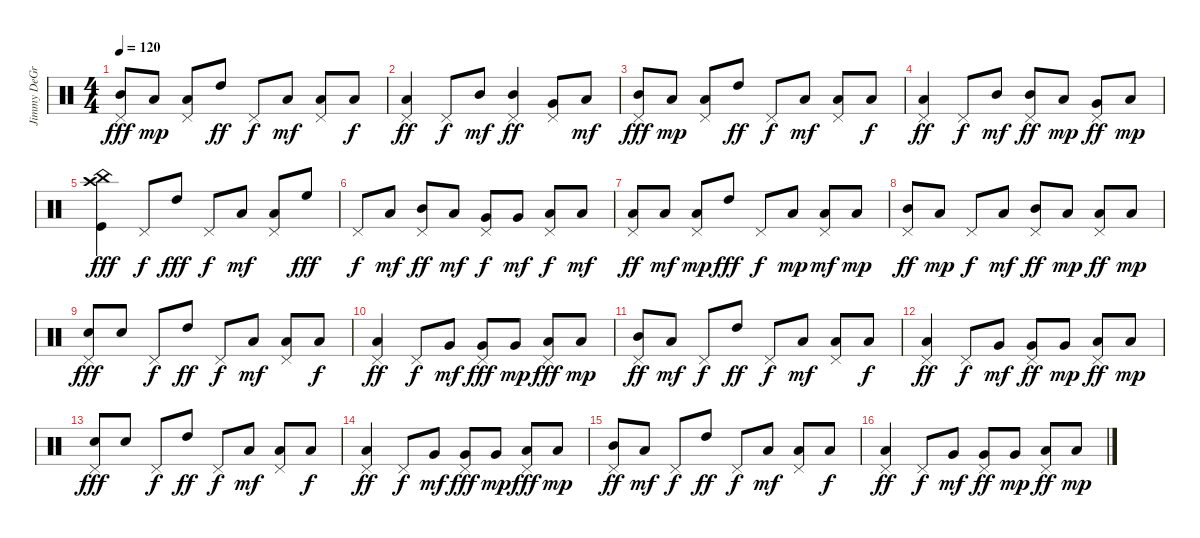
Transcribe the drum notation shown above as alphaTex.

\track ("Jimmy DeGrasso" "Jimmy DeGr") {instrument percussion}
\staff {score}
\articulation defaults
\ts (4 4)
\tempo 120
\clef neutral
\ks c
("Mid Tom (hit)" "Pedal Hi-Hat (hit)").8{dy fff} "Low Floor Tom (hit)".8{dy mp} ("Low Floor Tom (hit)" "Pedal Hi-Hat (hit)").8 "High Tom (hit)".8{dy ff} "Pedal Hi-Hat (hit)".8{dy f} "Low Floor Tom (hit)".8{dy mf} ("Low Floor Tom (hit)" "Pedal Hi-Hat (hit)").8 "Low Floor Tom (hit)".8{dy f} |
("Low Floor Tom (hit)" "Pedal Hi-Hat (hit)").4{dy ff} "Pedal Hi-Hat (hit)".8{dy f} "Mid Tom (hit)".8{dy mf} ("Mid Tom (hit)" "Pedal Hi-Hat (hit)").4{dy ff} ("Very Low Tom (hit)" "Pedal Hi-Hat (hit)").8 "Low Floor Tom (hit)".8{dy mf} |
("Mid Tom (hit)" "Pedal Hi-Hat (hit)").8{dy fff} "Low Floor Tom (hit)".8{dy mp} ("Low Floor Tom (hit)" "Pedal Hi-Hat (hit)").8 "High Tom (hit)".8{dy ff} "Pedal Hi-Hat (hit)".8{dy f} "Low Floor Tom (hit)".8{dy mf} ("Low Floor Tom (hit)" "Pedal Hi-Hat (hit)").8 "Low Floor Tom (hit)".8{dy f} |
("Low Floor Tom (hit)" "Pedal Hi-Hat (hit)").4{dy ff} "Pedal Hi-Hat (hit)".8{dy f} "Mid Tom (hit)".8{dy mf} ("Mid Tom (hit)" "Pedal Hi-Hat (hit)").8{dy ff} "Low Floor Tom (hit)".8{dy mp} ("Very Low Tom (hit)" "Pedal Hi-Hat (hit)").8{dy ff} "Low Floor Tom (hit)".8{dy mp} |
("Kick (hit)" "China (hit)" "Crash high (hit)").4{dy fff} "Pedal Hi-Hat (hit)".8{dy f} "High Tom (hit)".8{dy fff} "Pedal Hi-Hat (hit)".8{dy f} "Low Floor Tom (hit)".8{dy mf} ("Low Floor Tom (hit)" "Pedal Hi-Hat (hit)").8 "High Floor Tom (hit)".8{dy fff} |
"Pedal Hi-Hat (hit)".8{dy f} "Low Floor Tom (hit)".8{dy mf} ("Mid Tom (hit)" "Pedal Hi-Hat (hit)").8{dy ff} "Low Tom (hit)".8{dy mf} ("Very Low Tom (hit)" "Pedal Hi-Hat (hit)").8{dy f} "Very Low Tom (hit)".8{dy mf} ("Low Floor Tom (hit)" "Pedal Hi-Hat (hit)").8{dy f} "Low Floor Tom (hit)".8{dy mf} |
("Low Floor Tom (hit)" "Pedal Hi-Hat (hit)").8{dy ff} "Low Floor Tom (hit)".8{dy mf} ("Low Floor Tom (hit)" "Pedal Hi-Hat (hit)").8{dy mp} "High Tom (hit)".8{dy fff} "Pedal Hi-Hat (hit)".8{dy f} "Low Floor Tom (hit)".8{dy mp} ("Low Floor Tom (hit)" "Pedal Hi-Hat (hit)").8{dy mf} "Low Floor Tom (hit)".8{dy mp} |
("Mid Tom (hit)" "Pedal Hi-Hat (hit)").8{dy ff} "Low Floor Tom (hit)".8{dy mp} "Pedal Hi-Hat (hit)".8{dy f} "Low Floor Tom (hit)".8{dy mf} ("Mid Tom (hit)" "Pedal Hi-Hat (hit)").8{dy ff} "Low Floor Tom (hit)".8{dy mp} ("Low Tom (hit)" "Pedal Hi-Hat (hit)").8{dy ff} "Low Floor Tom (hit)".8{dy mp} |
("Electric Snare (hit)" "Pedal Hi-Hat (hit)").8{dy fff} "Electric Snare (hit)".8 "Pedal Hi-Hat (hit)".8{dy f} "High Tom (hit)".8{dy ff} "Pedal Hi-Hat (hit)".8{dy f} "Low Floor Tom (hit)".8{dy mf} ("Low Floor Tom (hit)" "Pedal Hi-Hat (hit)").8 "Low Floor Tom (hit)".8{dy f} |
("Low Floor Tom (hit)" "Pedal Hi-Hat (hit)").4{dy ff} "Pedal Hi-Hat (hit)".8{dy f} "Very Low Tom (hit)".8{dy mf} ("Very Low Tom (hit)" "Pedal Hi-Hat (hit)").8{dy fff} "Very Low Tom (hit)".8{dy mp} ("Low Floor Tom (hit)" "Pedal Hi-Hat (hit)").8{dy fff} "Low Floor Tom (hit)".8{dy mp} |
("Mid Tom (hit)" "Pedal Hi-Hat (hit)").8{dy ff} "Low Floor Tom (hit)".8{dy mf} "Pedal Hi-Hat (hit)".8{dy f} "High Tom (hit)".8{dy ff} "Pedal Hi-Hat (hit)".8{dy f} "Low Floor Tom (hit)".8{dy mf} ("Low Floor Tom (hit)" "Pedal Hi-Hat (hit)").8 "Low Floor Tom (hit)".8{dy f} |
("Low Floor Tom (hit)" "Pedal Hi-Hat (hit)").4{dy ff} "Pedal Hi-Hat (hit)".8{dy f} "Very Low Tom (hit)".8{dy mf} ("Very Low Tom (hit)" "Pedal Hi-Hat (hit)").8{dy ff} "Very Low Tom (hit)".8{dy mp} ("Low Floor Tom (hit)" "Pedal Hi-Hat (hit)").8{dy ff} "Low Floor Tom (hit)".8{dy mp} |
("Electric Snare (hit)" "Pedal Hi-Hat (hit)").8{dy fff} "Electric Snare (hit)".8 "Pedal Hi-Hat (hit)".8{dy f} "High Tom (hit)".8{dy ff} "Pedal Hi-Hat (hit)".8{dy f} "Low Floor Tom (hit)".8{dy mf} ("Low Floor Tom (hit)" "Pedal Hi-Hat (hit)").8 "Low Floor Tom (hit)".8{dy f} |
("Low Floor Tom (hit)" "Pedal Hi-Hat (hit)").4{dy ff} "Pedal Hi-Hat (hit)".8{dy f} "Very Low Tom (hit)".8{dy mf} ("Very Low Tom (hit)" "Pedal Hi-Hat (hit)").8{dy fff} "Very Low Tom (hit)".8{dy mp} ("Low Floor Tom (hit)" "Pedal Hi-Hat (hit)").8{dy fff} "Low Floor Tom (hit)".8{dy mp} |
("Mid Tom (hit)" "Pedal Hi-Hat (hit)").8{dy ff} "Low Floor Tom (hit)".8{dy mf} "Pedal Hi-Hat (hit)".8{dy f} "High Tom (hit)".8{dy ff} "Pedal Hi-Hat (hit)".8{dy f} "Low Floor Tom (hit)".8{dy mf} ("Low Floor Tom (hit)" "Pedal Hi-Hat (hit)").8 "Low Floor Tom (hit)".8{dy f} |
("Low Floor Tom (hit)" "Pedal Hi-Hat (hit)").4{dy ff} "Pedal Hi-Hat (hit)".8{dy f} "Very Low Tom (hit)".8{dy mf} ("Very Low Tom (hit)" "Pedal Hi-Hat (hit)").8{dy ff} "Very Low Tom (hit)".8{dy mp} ("Low Floor Tom (hit)" "Pedal Hi-Hat (hit)").8{dy ff} "Low Floor Tom (hit)".8{dy mp}
